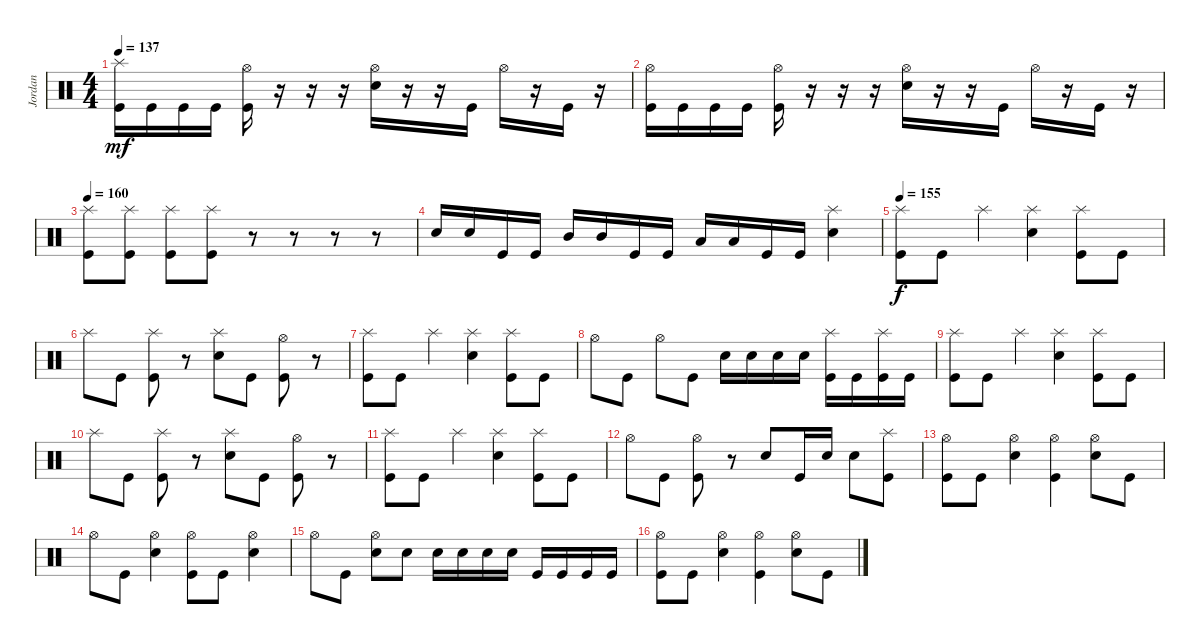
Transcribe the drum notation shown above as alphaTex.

\track ("Jordan" "Jordan") {instrument percussion}
\staff {score}
\articulation defaults
\ts (4 4)
\tempo 137
\clef neutral
\ks c
("Kick (hit)" "Splash (hit)").16{dy mf} "Kick (hit)".16 "Kick (hit)".16 "Kick (hit)".16 ("Kick (hit)" "Hi-Hat (open)").16 r.16 r.16 r.16 ("Snare (hit) 2" "Hi-Hat (open)").16 r.16 r.16 "Kick (hit)".16 "Hi-Hat (open)".16 r.16 "Kick (hit)".16 r.16 |
("Kick (hit)" "Hi-Hat (open)").16 "Kick (hit)".16 "Kick (hit)".16 "Kick (hit)".16 ("Kick (hit)" "Hi-Hat (open)").16 r.16 r.16 r.16 ("Snare (hit) 2" "Hi-Hat (open)").16 r.16 r.16 "Kick (hit)".16 "Hi-Hat (open)".16 r.16 "Kick (hit)".16 r.16 |
\tempo 160
("Kick (hit)" "Splash (hit)").8 ("Kick (hit)" "Splash (hit)").8 ("Kick (hit)" "Splash (hit)").8 ("Kick (hit)" "Splash (hit)").8 r.8 r.8 r.8 r.8 |
"Snare (hit) 2".16 "Snare (hit) 2".16 "Kick (hit)".16 "Kick (hit)".16 "Mid Tom (hit)".16 "Mid Tom (hit)".16 "Kick (hit)".16 "Kick (hit)".16 "Low Tom (hit)".16 "Low Tom (hit)".16 "Kick (hit)".16 "Kick (hit)".16 ("Snare (hit) 2" "Splash (hit)").4 |
\tempo 155
("Kick (hit)" "Splash (hit)").8{dy f} "Kick (hit)".8 "Splash (hit)".4 ("Splash (hit)" "Snare (hit) 2").4 ("Kick (hit)" "Splash (hit)").8 "Kick (hit)".8 |
"Splash (hit)".8 "Kick (hit)".8 ("Splash (hit)" "Kick (hit)").8 r.8 ("Splash (hit)" "Snare (hit) 2").8 "Kick (hit)".8 ("Kick (hit)" "Hi-Hat (open)").8 r.8 |
("Kick (hit)" "Splash (hit)").8 "Kick (hit)".8 "Splash (hit)".4 ("Splash (hit)" "Snare (hit) 2").4 ("Kick (hit)" "Splash (hit)").8 "Kick (hit)".8 |
"Hi-Hat (open)".8 "Kick (hit)".8 "Hi-Hat (open)".8 "Kick (hit)".8 "Snare (hit) 2".16 "Snare (hit) 2".16 "Snare (hit) 2".16 "Snare (hit) 2".16 ("Kick (hit)" "Splash (hit)").16 "Kick (hit)".16 ("Kick (hit)" "Splash (hit)").16 "Kick (hit)".16 |
("Kick (hit)" "Splash (hit)").8 "Kick (hit)".8 "Splash (hit)".4 ("Splash (hit)" "Snare (hit) 2").4 ("Kick (hit)" "Splash (hit)").8 "Kick (hit)".8 |
"Splash (hit)".8 "Kick (hit)".8 ("Splash (hit)" "Kick (hit)").8 r.8 ("Splash (hit)" "Snare (hit) 2").8 "Kick (hit)".8 ("Kick (hit)" "Hi-Hat (open)").8 r.8 |
("Kick (hit)" "Splash (hit)").8 "Kick (hit)".8 "Splash (hit)".4 ("Splash (hit)" "Snare (hit) 2").4 ("Kick (hit)" "Splash (hit)").8 "Kick (hit)".8 |
"Hi-Hat (open)".8 "Kick (hit)".8 ("Hi-Hat (open)" "Kick (hit)").8 r.8 "Snare (hit) 2".8 "Kick (hit)".16 "Snare (hit) 2".16 "Snare (hit) 2".8 ("Kick (hit)" "Splash (hit)").8 |
("Hi-Hat (open)" "Kick (hit)").8 "Kick (hit)".8 ("Hi-Hat (open)" "Snare (hit) 2").4 ("Hi-Hat (open)" "Kick (hit)").4 ("Hi-Hat (open)" "Snare (hit) 2").8 "Kick (hit)".8 |
"Hi-Hat (open)".8 "Kick (hit)".8 ("Hi-Hat (open)" "Snare (hit) 2").4 ("Hi-Hat (open)" "Kick (hit)").8 "Kick (hit)".8 ("Hi-Hat (open)" "Snare (hit) 2").4 |
"Hi-Hat (open)".8 "Kick (hit)".8 ("Hi-Hat (open)" "Snare (hit) 2").8 "Snare (hit) 2".8 "Snare (hit) 2".16 "Snare (hit) 2".16 "Snare (hit) 2".16 "Snare (hit) 2".16 "Kick (hit)".16 "Kick (hit)".16 "Kick (hit)".16 "Kick (hit)".16 |
("Hi-Hat (open)" "Kick (hit)").8 "Kick (hit)".8 ("Hi-Hat (open)" "Snare (hit) 2").4 ("Hi-Hat (open)" "Kick (hit)").4 ("Hi-Hat (open)" "Snare (hit) 2").8 "Kick (hit)".8
